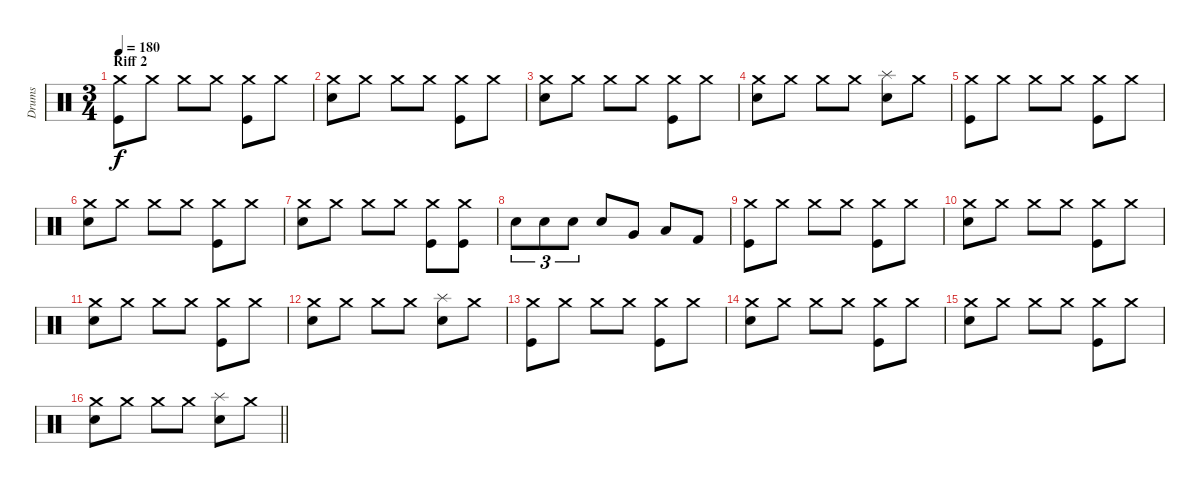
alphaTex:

\track ("Drums" "Drums") {instrument percussion}
\staff {score}
\articulation defaults
\ts (3 4)
\section ("" "Riff 2")
\tempo 180
\clef neutral
\ks c
("Crash medium (hit)" "Kick (hit)").8{dy f} "Crash medium (hit)".8 "Crash medium (hit)".8 "Crash medium (hit)".8 ("Crash medium (hit)" "Kick (hit)").8 "Crash medium (hit)".8 |
("Crash medium (hit)" "Electric Snare (hit)").8 "Crash medium (hit)".8 "Crash medium (hit)".8 "Crash medium (hit)".8 ("Crash medium (hit)" "Kick (hit)").8 "Crash medium (hit)".8 |
("Crash medium (hit)" "Electric Snare (hit)").8 "Crash medium (hit)".8 "Crash medium (hit)".8 "Crash medium (hit)".8 ("Crash medium (hit)" "Kick (hit)").8 "Crash medium (hit)".8 |
("Crash medium (hit)" "Electric Snare (hit)").8 "Crash medium (hit)".8 "Crash medium (hit)".8 "Crash medium (hit)".8 ("Splash (hit)" "Electric Snare (hit)").8 "Crash medium (hit)".8 |
("Crash medium (hit)" "Kick (hit)").8 "Crash medium (hit)".8 "Crash medium (hit)".8 "Crash medium (hit)".8 ("Crash medium (hit)" "Kick (hit)").8 "Crash medium (hit)".8 |
("Crash medium (hit)" "Electric Snare (hit)").8 "Crash medium (hit)".8 "Crash medium (hit)".8 "Crash medium (hit)".8 ("Crash medium (hit)" "Kick (hit)").8 "Crash medium (hit)".8 |
("Crash medium (hit)" "Electric Snare (hit)").8 "Crash medium (hit)".8 "Crash medium (hit)".8 "Crash medium (hit)".8 ("Crash medium (hit)" "Kick (hit)").8 ("Crash medium (hit)" "Kick (hit)").8 |
"Snare (hit) 2".8{tu (3 2)} "Snare (hit) 2".8{tu (3 2)} "Snare (hit) 2".8{tu (3 2)} "Electric Snare (hit)".8 "Very Low Tom (hit)".8 "Low Floor Tom (hit)".8 "Kick (hit) 2".8 |
("Crash medium (hit)" "Kick (hit)").8 "Crash medium (hit)".8 "Crash medium (hit)".8 "Crash medium (hit)".8 ("Crash medium (hit)" "Kick (hit)").8 "Crash medium (hit)".8 |
("Crash medium (hit)" "Electric Snare (hit)").8 "Crash medium (hit)".8 "Crash medium (hit)".8 "Crash medium (hit)".8 ("Crash medium (hit)" "Kick (hit)").8 "Crash medium (hit)".8 |
("Crash medium (hit)" "Electric Snare (hit)").8 "Crash medium (hit)".8 "Crash medium (hit)".8 "Crash medium (hit)".8 ("Crash medium (hit)" "Kick (hit)").8 "Crash medium (hit)".8 |
("Crash medium (hit)" "Electric Snare (hit)").8 "Crash medium (hit)".8 "Crash medium (hit)".8 "Crash medium (hit)".8 ("Splash (hit)" "Electric Snare (hit)").8 "Crash medium (hit)".8 |
("Crash medium (hit)" "Kick (hit)").8 "Crash medium (hit)".8 "Crash medium (hit)".8 "Crash medium (hit)".8 ("Crash medium (hit)" "Kick (hit)").8 "Crash medium (hit)".8 |
("Crash medium (hit)" "Electric Snare (hit)").8 "Crash medium (hit)".8 "Crash medium (hit)".8 "Crash medium (hit)".8 ("Crash medium (hit)" "Kick (hit)").8 "Crash medium (hit)".8 |
("Crash medium (hit)" "Electric Snare (hit)").8 "Crash medium (hit)".8 "Crash medium (hit)".8 "Crash medium (hit)".8 ("Crash medium (hit)" "Kick (hit)").8 "Crash medium (hit)".8 |
\barLineRight lightlight
("Crash medium (hit)" "Electric Snare (hit)").8 "Crash medium (hit)".8 "Crash medium (hit)".8 "Crash medium (hit)".8 ("Splash (hit)" "Electric Snare (hit)").8 "Crash medium (hit)".8
